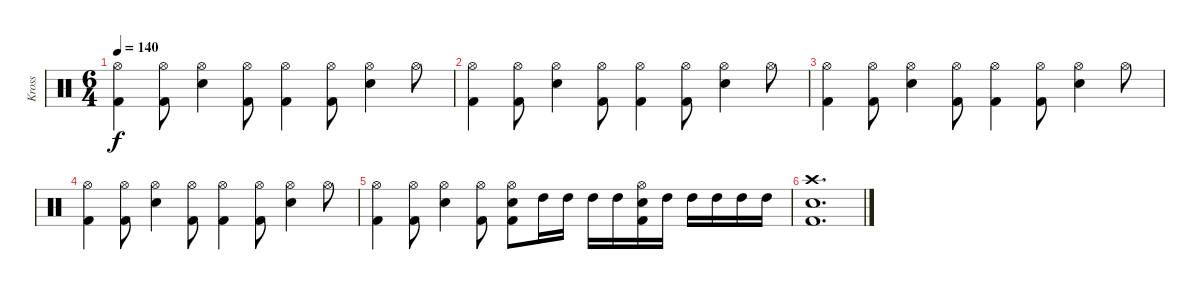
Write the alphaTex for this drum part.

\track ("Kross" "Kross") {instrument percussion}
\staff {score}
\articulation defaults
\ts (6 4)
\tempo 140
\clef neutral
\ks c
("Hi-Hat (open)" "Kick (hit) 2").4{dy f} ("Hi-Hat (open)" "Kick (hit) 2").8 ("Hi-Hat (open)" "Electric Snare (hit)").4 ("Hi-Hat (open)" "Kick (hit) 2").8 ("Hi-Hat (open)" "Kick (hit) 2").4 ("Hi-Hat (open)" "Kick (hit) 2").8 ("Hi-Hat (open)" "Electric Snare (hit)").4 "Hi-Hat (open)".8 |
("Hi-Hat (open)" "Kick (hit) 2").4 ("Hi-Hat (open)" "Kick (hit) 2").8 ("Hi-Hat (open)" "Electric Snare (hit)").4 ("Hi-Hat (open)" "Kick (hit) 2").8 ("Hi-Hat (open)" "Kick (hit) 2").4 ("Hi-Hat (open)" "Kick (hit) 2").8 ("Hi-Hat (open)" "Electric Snare (hit)").4 "Hi-Hat (open)".8 |
("Hi-Hat (open)" "Kick (hit) 2").4 ("Hi-Hat (open)" "Kick (hit) 2").8 ("Hi-Hat (open)" "Electric Snare (hit)").4 ("Hi-Hat (open)" "Kick (hit) 2").8 ("Hi-Hat (open)" "Kick (hit) 2").4 ("Hi-Hat (open)" "Kick (hit) 2").8 ("Hi-Hat (open)" "Electric Snare (hit)").4 "Hi-Hat (open)".8 |
("Hi-Hat (open)" "Kick (hit) 2").4 ("Hi-Hat (open)" "Kick (hit) 2").8 ("Hi-Hat (open)" "Electric Snare (hit)").4 ("Hi-Hat (open)" "Kick (hit) 2").8 ("Hi-Hat (open)" "Kick (hit) 2").4 ("Hi-Hat (open)" "Kick (hit) 2").8 ("Hi-Hat (open)" "Electric Snare (hit)").4 "Hi-Hat (open)".8 |
("Hi-Hat (open)" "Kick (hit) 2").4 ("Hi-Hat (open)" "Kick (hit) 2").8 ("Hi-Hat (open)" "Electric Snare (hit)").4 ("Hi-Hat (open)" "Kick (hit) 2").8 ("Hi-Hat (open)" "Electric Snare (hit)" "Kick (hit) 2").8 "High Tom (hit)".16 "High Tom (hit)".16 "High Tom (hit)".16 "High Tom (hit)".16 ("Hi-Hat (open)" "Electric Snare (hit)" "Kick (hit) 2").16 "High Tom (hit)".16 "High Tom (hit)".16 "High Tom (hit)".16 "High Tom (hit)".16 "High Tom (hit)".16 |
("Crash high (hit)" "Electric Snare (hit)" "Kick (hit) 2").1{d}
